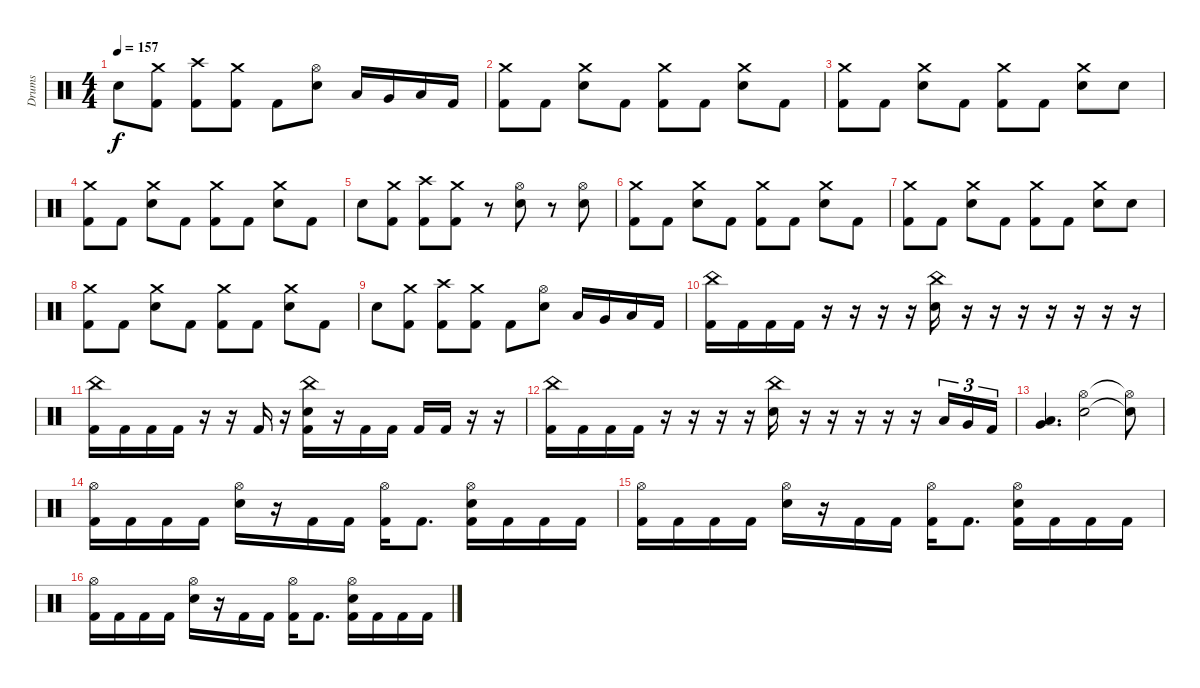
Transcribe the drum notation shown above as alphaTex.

\track ("Drums" "Drums") {instrument percussion}
\staff {score}
\articulation defaults
\ts (4 4)
\tempo 157
\clef neutral
\ks c "Electric Snare (hit)".8{dy f}
("Crash medium (hit)" "Kick (hit) 2").8 ("Crash high (hit)" "Kick (hit) 2").8 ("Crash medium (hit)" "Kick (hit) 2").8 "Kick (hit) 2".8 ("Hi-Hat (open)" "Electric Snare (hit)").8 "Low Tom (hit)".16 "Very Low Tom (hit)".16 "Low Floor Tom (hit)".16 "Kick (hit) 2".16 |
("Crash medium (hit)" "Kick (hit) 2").8 "Kick (hit) 2".8 ("Crash medium (hit)" "Electric Snare (hit)").8 "Kick (hit) 2".8 ("Crash medium (hit)" "Kick (hit) 2").8 "Kick (hit) 2".8 ("Crash medium (hit)" "Electric Snare (hit)").8 "Kick (hit) 2".8 |
("Crash medium (hit)" "Kick (hit) 2").8 "Kick (hit) 2".8 ("Crash medium (hit)" "Electric Snare (hit)").8 "Kick (hit) 2".8 ("Crash medium (hit)" "Kick (hit) 2").8 "Kick (hit) 2".8 ("Crash medium (hit)" "Electric Snare (hit)").8 "Electric Snare (hit)".8 |
("Crash medium (hit)" "Kick (hit) 2").8 "Kick (hit) 2".8 ("Crash medium (hit)" "Electric Snare (hit)").8 "Kick (hit) 2".8 ("Crash medium (hit)" "Kick (hit) 2").8 "Kick (hit) 2".8 ("Crash medium (hit)" "Electric Snare (hit)").8 "Kick (hit) 2".8 |
"Electric Snare (hit)".8 ("Crash medium (hit)" "Kick (hit) 2").8 ("Crash high (hit)" "Kick (hit) 2").8 ("Crash medium (hit)" "Kick (hit) 2").8 r.8 ("Hi-Hat (open)" "Electric Snare (hit)").8 r.8 ("Hi-Hat (open)" "Electric Snare (hit)").8 |
("Crash medium (hit)" "Kick (hit) 2").8 "Kick (hit) 2".8 ("Crash medium (hit)" "Electric Snare (hit)").8 "Kick (hit) 2".8 ("Crash medium (hit)" "Kick (hit) 2").8 "Kick (hit) 2".8 ("Crash medium (hit)" "Electric Snare (hit)").8 "Kick (hit) 2".8 |
("Crash medium (hit)" "Kick (hit) 2").8 "Kick (hit) 2".8 ("Crash medium (hit)" "Electric Snare (hit)").8 "Kick (hit) 2".8 ("Crash medium (hit)" "Kick (hit) 2").8 "Kick (hit) 2".8 ("Crash medium (hit)" "Electric Snare (hit)").8 "Electric Snare (hit)".8 |
("Crash medium (hit)" "Kick (hit) 2").8 "Kick (hit) 2".8 ("Crash medium (hit)" "Electric Snare (hit)").8 "Kick (hit) 2".8 ("Crash medium (hit)" "Kick (hit) 2").8 "Kick (hit) 2".8 ("Crash medium (hit)" "Electric Snare (hit)").8 "Kick (hit) 2".8 |
"Electric Snare (hit)".8 ("Crash medium (hit)" "Kick (hit) 2").8 ("Crash high (hit)" "Kick (hit) 2").8 ("Crash medium (hit)" "Kick (hit) 2").8 "Kick (hit) 2".8 ("Hi-Hat (open)" "Electric Snare (hit)").8 "Low Tom (hit)".16 "Very Low Tom (hit)".16 "Low Floor Tom (hit)".16 "Kick (hit) 2".16 |
("China (hit)" "Kick (hit) 2").16 "Kick (hit) 2".16 "Kick (hit) 2".16 "Kick (hit) 2".16 r.16 r.16 r.16 r.16 ("China (hit)" "Electric Snare (hit)").16 r.16 r.16 r.16 r.16 r.16 r.16 r.16 |
("China (hit)" "Kick (hit) 2").16 "Kick (hit) 2".16 "Kick (hit) 2".16 "Kick (hit) 2".16 r.16 r.16 "Kick (hit) 2".16 r.16 ("China (hit)" "Electric Snare (hit)" "Kick (hit) 2").16 r.16 "Kick (hit) 2".16 "Kick (hit) 2".16 "Kick (hit) 2".16 "Kick (hit) 2".16 r.16 r.16 |
("China (hit)" "Kick (hit) 2").16 "Kick (hit) 2".16 "Kick (hit) 2".16 "Kick (hit) 2".16 r.16 r.16 r.16 r.16 ("China (hit)" "Electric Snare (hit)").16 r.16 r.16 r.16 r.16 r.16 "Low Tom (hit)".16{tu (3 2)} "Very Low Tom (hit)".16{tu (3 2)} "Kick (hit) 2".16{tu (3 2)} |
("Very Low Tom (hit)" "Low Floor Tom (hit)").4{d} ("Hi-Hat (open)" "Electric Snare (hit)").2 ("Hi-Hat (open)"{t} "Electric Snare (hit)"{t}).8 |
("Hi-Hat (open)" "Kick (hit) 2").16 "Kick (hit) 2".16 "Kick (hit) 2".16 "Kick (hit) 2".16 ("Hi-Hat (open)" "Electric Snare (hit)").16 r.16 "Kick (hit) 2".16 "Kick (hit) 2".16 ("Hi-Hat (open)" "Kick (hit) 2").16 "Kick (hit) 2".8{d} ("Hi-Hat (open)" "Electric Snare (hit)" "Kick (hit) 2").16 "Kick (hit) 2".16 "Kick (hit) 2".16 "Kick (hit) 2".16 |
("Hi-Hat (open)" "Kick (hit) 2").16 "Kick (hit) 2".16 "Kick (hit) 2".16 "Kick (hit) 2".16 ("Hi-Hat (open)" "Electric Snare (hit)").16 r.16 "Kick (hit) 2".16 "Kick (hit) 2".16 ("Hi-Hat (open)" "Kick (hit) 2").16 "Kick (hit) 2".8{d} ("Hi-Hat (open)" "Electric Snare (hit)" "Kick (hit) 2").16 "Kick (hit) 2".16 "Kick (hit) 2".16 "Kick (hit) 2".16 |
("Hi-Hat (open)" "Kick (hit) 2").16 "Kick (hit) 2".16 "Kick (hit) 2".16 "Kick (hit) 2".16 ("Hi-Hat (open)" "Electric Snare (hit)").16 r.16 "Kick (hit) 2".16 "Kick (hit) 2".16 ("Hi-Hat (open)" "Kick (hit) 2").16 "Kick (hit) 2".8{d} ("Hi-Hat (open)" "Electric Snare (hit)" "Kick (hit) 2").16 "Kick (hit) 2".16 "Kick (hit) 2".16 "Kick (hit) 2".16
